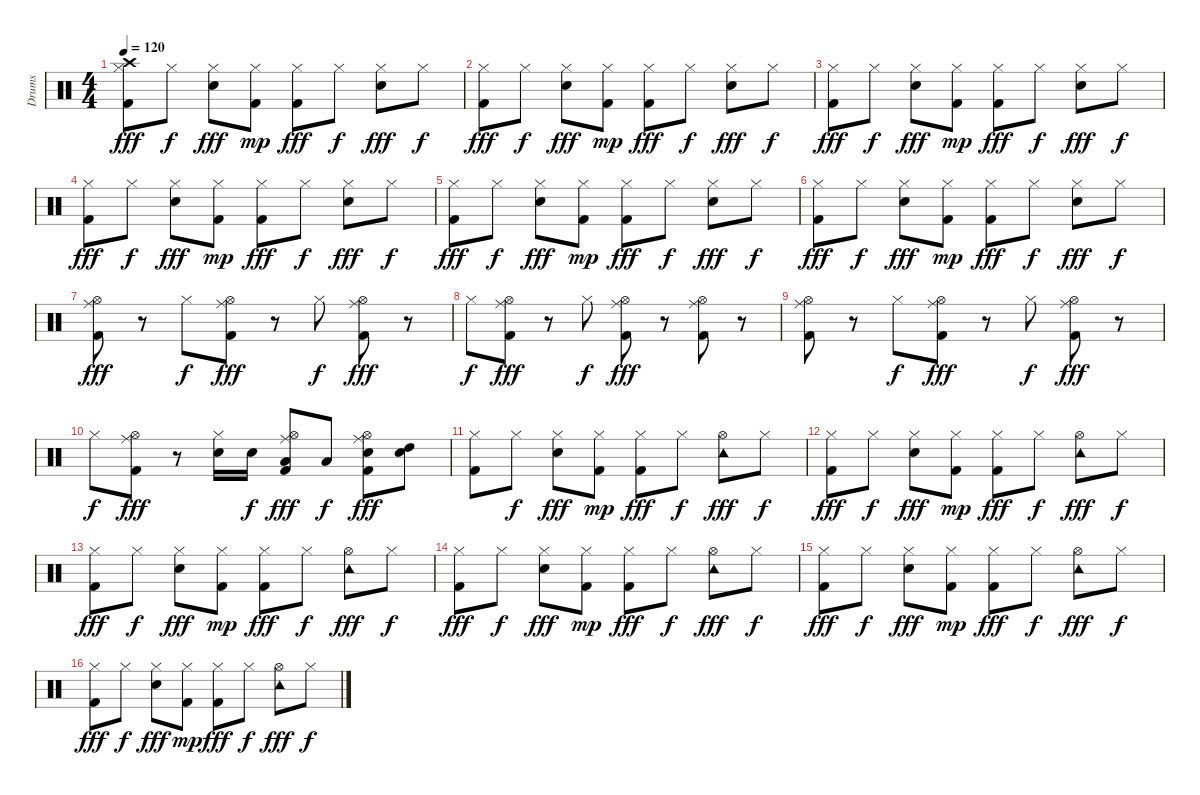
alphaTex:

\track ("Drums" "Drums") {instrument percussion}
\staff {score}
\articulation defaults
\ts (4 4)
\tempo 120
\clef neutral
\ks c
("Crash high (hit)" "Hi-Hat (closed)" "Kick (hit) 2").8{dy fff} "Hi-Hat (closed)".8{dy f} ("Hi-Hat (closed)" "Snare (hit) 2").8{dy fff} ("Hi-Hat (closed)" "Kick (hit) 2").8{dy mp} ("Hi-Hat (closed)" "Kick (hit) 2").8{dy fff} "Hi-Hat (closed)".8{dy f} ("Hi-Hat (closed)" "Snare (hit) 2").8{dy fff} "Hi-Hat (closed)".8{dy f} |
("Hi-Hat (closed)" "Kick (hit) 2").8{dy fff} "Hi-Hat (closed)".8{dy f} ("Hi-Hat (closed)" "Snare (hit) 2").8{dy fff} ("Hi-Hat (closed)" "Kick (hit) 2").8{dy mp} ("Hi-Hat (closed)" "Kick (hit) 2").8{dy fff} "Hi-Hat (closed)".8{dy f} ("Hi-Hat (closed)" "Snare (hit) 2").8{dy fff} "Hi-Hat (closed)".8{dy f} |
("Hi-Hat (closed)" "Kick (hit) 2").8{dy fff} "Hi-Hat (closed)".8{dy f} ("Hi-Hat (closed)" "Snare (hit) 2").8{dy fff} ("Hi-Hat (closed)" "Kick (hit) 2").8{dy mp} ("Hi-Hat (closed)" "Kick (hit) 2").8{dy fff} "Hi-Hat (closed)".8{dy f} ("Hi-Hat (closed)" "Snare (hit) 2").8{dy fff} "Hi-Hat (closed)".8{dy f} |
("Hi-Hat (closed)" "Kick (hit) 2").8{dy fff} "Hi-Hat (closed)".8{dy f} ("Hi-Hat (closed)" "Snare (hit) 2").8{dy fff} ("Hi-Hat (closed)" "Kick (hit) 2").8{dy mp} ("Hi-Hat (closed)" "Kick (hit) 2").8{dy fff} "Hi-Hat (closed)".8{dy f} ("Hi-Hat (closed)" "Snare (hit) 2").8{dy fff} "Hi-Hat (closed)".8{dy f} |
("Hi-Hat (closed)" "Kick (hit) 2").8{dy fff} "Hi-Hat (closed)".8{dy f} ("Hi-Hat (closed)" "Snare (hit) 2").8{dy fff} ("Hi-Hat (closed)" "Kick (hit) 2").8{dy mp} ("Hi-Hat (closed)" "Kick (hit) 2").8{dy fff} "Hi-Hat (closed)".8{dy f} ("Hi-Hat (closed)" "Snare (hit) 2").8{dy fff} "Hi-Hat (closed)".8{dy f} |
("Hi-Hat (closed)" "Kick (hit) 2").8{dy fff} "Hi-Hat (closed)".8{dy f} ("Hi-Hat (closed)" "Snare (hit) 2").8{dy fff} ("Hi-Hat (closed)" "Kick (hit) 2").8{dy mp} ("Hi-Hat (closed)" "Kick (hit) 2").8{dy fff} "Hi-Hat (closed)".8{dy f} ("Hi-Hat (closed)" "Snare (hit) 2").8{dy fff} "Hi-Hat (closed)".8{dy f} |
("Ride (middle)" "Hi-Hat (open)" "Kick (hit) 2").8{dy fff} r.8 "Hi-Hat (closed)".8{dy f} ("Ride (middle)" "Hi-Hat (open)" "Kick (hit) 2").8{dy fff} r.8 "Hi-Hat (closed)".8{dy f} ("Ride (middle)" "Hi-Hat (open)" "Kick (hit) 2").8{dy fff} r.8 |
"Hi-Hat (closed)".8{dy f} ("Ride (middle)" "Hi-Hat (open)" "Kick (hit) 2").8{dy fff} r.8 "Hi-Hat (closed)".8{dy f} ("Ride (middle)" "Hi-Hat (open)" "Kick (hit) 2").8{dy fff} r.8 ("Ride (middle)" "Hi-Hat (open)" "Kick (hit) 2").8 r.8 |
("Ride (middle)" "Hi-Hat (open)" "Kick (hit) 2").8 r.8 "Hi-Hat (closed)".8{dy f} ("Ride (middle)" "Hi-Hat (open)" "Kick (hit) 2").8{dy fff} r.8 "Hi-Hat (closed)".8{dy f} ("Ride (middle)" "Hi-Hat (open)" "Kick (hit) 2").8{dy fff} r.8 |
"Hi-Hat (closed)".8{dy f} ("Ride (middle)" "Hi-Hat (open)" "Kick (hit) 2").8{dy fff} r.8 ("Hi-Hat (closed)" "Snare (hit) 2").16 "Snare (hit) 2".16{dy f} ("Ride (middle)" "Hi-Hat (open)" "Low Floor Tom (hit)" "Kick (hit) 2").8{dy fff} "Low Tom (hit)".8{dy f} ("Ride (middle)" "Hi-Hat (open)" "Snare (hit) 2" "Kick (hit) 2").8{dy fff} ("High Tom (hit)" "Snare (hit) 2").8 |
("Hi-Hat (closed)" "Kick (hit) 2").8 "Hi-Hat (closed)".8{dy f} ("Hi-Hat (closed)" "Snare (hit) 2").8{dy fff} ("Hi-Hat (closed)" "Kick (hit) 2").8{dy mp} ("Hi-Hat (closed)" "Kick (hit) 2").8{dy fff} "Hi-Hat (closed)".8{dy f} ("Tambourine (hit)" "Hi-Hat (open)").8{dy fff} "Hi-Hat (closed)".8{dy f} |
("Hi-Hat (closed)" "Kick (hit) 2").8{dy fff} "Hi-Hat (closed)".8{dy f} ("Hi-Hat (closed)" "Snare (hit) 2").8{dy fff} ("Hi-Hat (closed)" "Kick (hit) 2").8{dy mp} ("Hi-Hat (closed)" "Kick (hit) 2").8{dy fff} "Hi-Hat (closed)".8{dy f} ("Tambourine (hit)" "Hi-Hat (open)").8{dy fff} "Hi-Hat (closed)".8{dy f} |
("Hi-Hat (closed)" "Kick (hit) 2").8{dy fff} "Hi-Hat (closed)".8{dy f} ("Hi-Hat (closed)" "Snare (hit) 2").8{dy fff} ("Hi-Hat (closed)" "Kick (hit) 2").8{dy mp} ("Hi-Hat (closed)" "Kick (hit) 2").8{dy fff} "Hi-Hat (closed)".8{dy f} ("Tambourine (hit)" "Hi-Hat (open)").8{dy fff} "Hi-Hat (closed)".8{dy f} |
("Hi-Hat (closed)" "Kick (hit) 2").8{dy fff} "Hi-Hat (closed)".8{dy f} ("Hi-Hat (closed)" "Snare (hit) 2").8{dy fff} ("Hi-Hat (closed)" "Kick (hit) 2").8{dy mp} ("Hi-Hat (closed)" "Kick (hit) 2").8{dy fff} "Hi-Hat (closed)".8{dy f} ("Tambourine (hit)" "Hi-Hat (open)").8{dy fff} "Hi-Hat (closed)".8{dy f} |
("Hi-Hat (closed)" "Kick (hit) 2").8{dy fff} "Hi-Hat (closed)".8{dy f} ("Hi-Hat (closed)" "Snare (hit) 2").8{dy fff} ("Hi-Hat (closed)" "Kick (hit) 2").8{dy mp} ("Hi-Hat (closed)" "Kick (hit) 2").8{dy fff} "Hi-Hat (closed)".8{dy f} ("Tambourine (hit)" "Hi-Hat (open)").8{dy fff} "Hi-Hat (closed)".8{dy f} |
("Hi-Hat (closed)" "Kick (hit) 2").8{dy fff} "Hi-Hat (closed)".8{dy f} ("Hi-Hat (closed)" "Snare (hit) 2").8{dy fff} ("Hi-Hat (closed)" "Kick (hit) 2").8{dy mp} ("Hi-Hat (closed)" "Kick (hit) 2").8{dy fff} "Hi-Hat (closed)".8{dy f} ("Tambourine (hit)" "Hi-Hat (open)").8{dy fff} "Hi-Hat (closed)".8{dy f}
